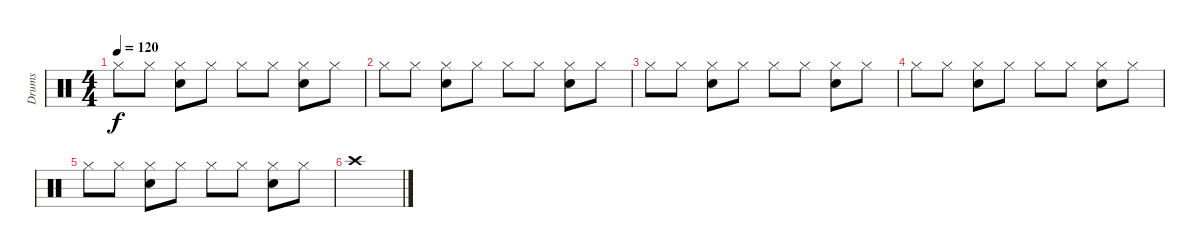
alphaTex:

\track ("Drums" "Drums") {instrument percussion}
\staff {score}
\articulation defaults
\ts (4 4)
\tempo 120
\clef neutral
\ks c "Hi-Hat (closed)".8{dy f} "Hi-Hat (closed)".8
("Hi-Hat (closed)" "Electric Snare (hit)").8 "Hi-Hat (closed)".8 "Hi-Hat (closed)".8 "Hi-Hat (closed)".8 ("Hi-Hat (closed)" "Electric Snare (hit)").8 "Hi-Hat (closed)".8 |
"Hi-Hat (closed)".8 "Hi-Hat (closed)".8 ("Hi-Hat (closed)" "Electric Snare (hit)").8 "Hi-Hat (closed)".8 "Hi-Hat (closed)".8 "Hi-Hat (closed)".8 ("Hi-Hat (closed)" "Electric Snare (hit)").8 "Hi-Hat (closed)".8 |
"Hi-Hat (closed)".8 "Hi-Hat (closed)".8 ("Hi-Hat (closed)" "Electric Snare (hit)").8 "Hi-Hat (closed)".8 "Hi-Hat (closed)".8 "Hi-Hat (closed)".8 ("Hi-Hat (closed)" "Electric Snare (hit)").8 "Hi-Hat (closed)".8 |
"Hi-Hat (closed)".8 "Hi-Hat (closed)".8 ("Hi-Hat (closed)" "Electric Snare (hit)").8 "Hi-Hat (closed)".8 "Hi-Hat (closed)".8 "Hi-Hat (closed)".8 ("Hi-Hat (closed)" "Electric Snare (hit)").8 "Hi-Hat (closed)".8 |
"Hi-Hat (closed)".8 "Hi-Hat (closed)".8 ("Hi-Hat (closed)" "Electric Snare (hit)").8 "Hi-Hat (closed)".8 "Hi-Hat (closed)".8 "Hi-Hat (closed)".8 ("Hi-Hat (closed)" "Electric Snare (hit)").8 "Hi-Hat (closed)".8 |
"Crash high (hit)".1
